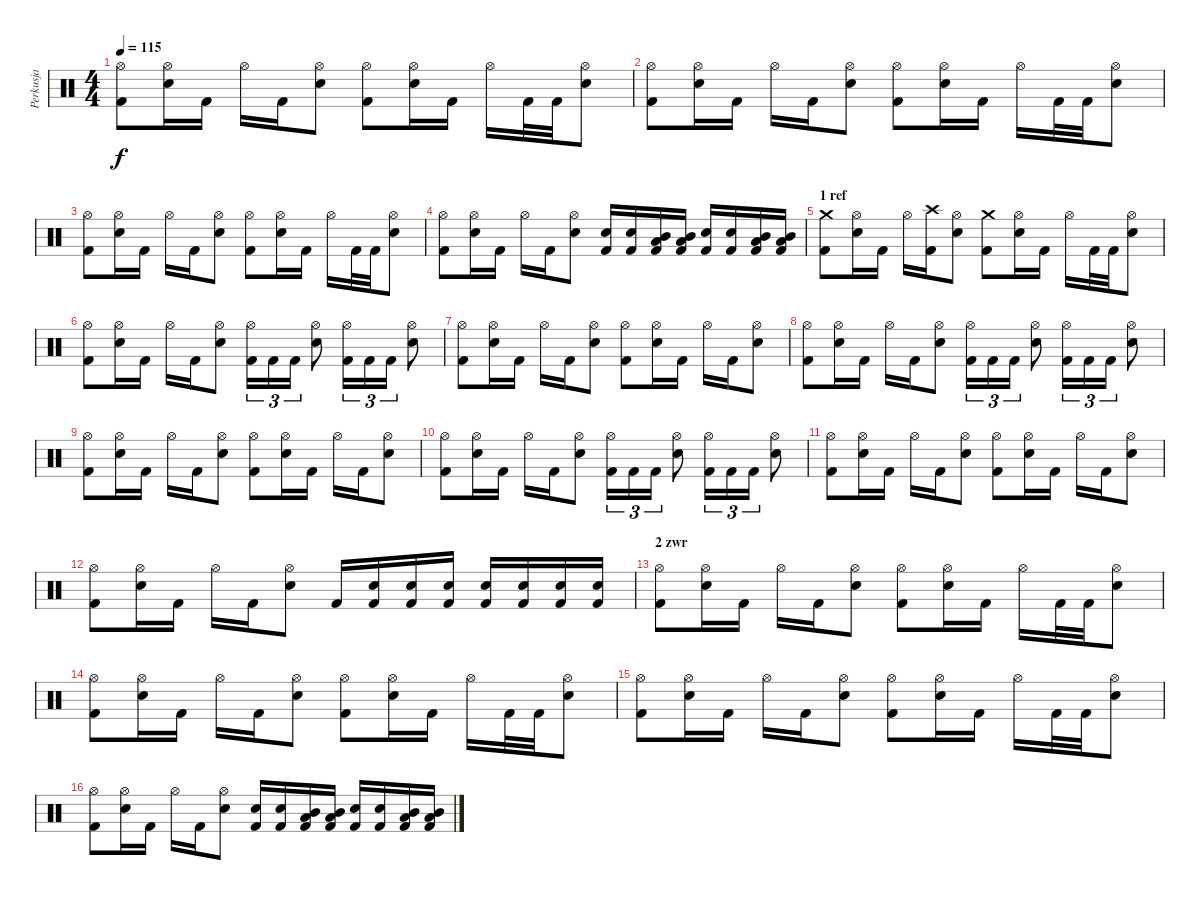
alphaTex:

\track ("Perkusja" "Perkusja") {instrument percussion}
\staff {score}
\articulation defaults
\ts (4 4)
\tempo 115
\clef neutral
\ks c
("Hi-Hat (open)" "Kick (hit) 2").8{dy f} ("Hi-Hat (open)" "Snare (hit) 2").16 "Kick (hit) 2".16 "Hi-Hat (open)".16 "Kick (hit) 2".16 ("Hi-Hat (open)" "Snare (hit) 2").8 ("Hi-Hat (open)" "Kick (hit) 2").8 ("Hi-Hat (open)" "Snare (hit) 2").16 "Kick (hit) 2".16 "Hi-Hat (open)".16 "Kick (hit) 2".32 "Kick (hit) 2".32 ("Hi-Hat (open)" "Snare (hit) 2").8 |
("Hi-Hat (open)" "Kick (hit) 2").8 ("Hi-Hat (open)" "Snare (hit) 2").16 "Kick (hit) 2".16 "Hi-Hat (open)".16 "Kick (hit) 2".16 ("Hi-Hat (open)" "Snare (hit) 2").8 ("Hi-Hat (open)" "Kick (hit) 2").8 ("Hi-Hat (open)" "Snare (hit) 2").16 "Kick (hit) 2".16 "Hi-Hat (open)".16 "Kick (hit) 2".32 "Kick (hit) 2".32 ("Hi-Hat (open)" "Snare (hit) 2").8 |
("Hi-Hat (open)" "Kick (hit) 2").8 ("Hi-Hat (open)" "Snare (hit) 2").16 "Kick (hit) 2".16 "Hi-Hat (open)".16 "Kick (hit) 2".16 ("Hi-Hat (open)" "Snare (hit) 2").8 ("Hi-Hat (open)" "Kick (hit) 2").8 ("Hi-Hat (open)" "Snare (hit) 2").16 "Kick (hit) 2".16 "Hi-Hat (open)".16 "Kick (hit) 2".32 "Kick (hit) 2".32 ("Hi-Hat (open)" "Snare (hit) 2").8 |
("Hi-Hat (open)" "Kick (hit) 2").8 ("Hi-Hat (open)" "Snare (hit) 2").16 "Kick (hit) 2".16 "Hi-Hat (open)".16 "Kick (hit) 2".16 ("Hi-Hat (open)" "Snare (hit) 2").8 ("Snare (hit) 2" "Kick (hit) 2").16 ("Snare (hit) 2" "Kick (hit) 2").16 ("Low Tom (hit)" "Mid Tom (hit)" "Kick (hit) 2").16 ("Low Tom (hit)" "Mid Tom (hit)" "Kick (hit) 2").16 ("Snare (hit) 2" "Kick (hit) 2").16 ("Snare (hit) 2" "Kick (hit) 2").16 ("Low Tom (hit)" "Mid Tom (hit)" "Kick (hit) 2").16 ("Low Tom (hit)" "Mid Tom (hit)" "Kick (hit) 2").16 |
\section ("" "1 ref")
("Crash medium (hit)" "Kick (hit) 2").8 ("Hi-Hat (open)" "Snare (hit) 2").16 "Kick (hit) 2".16 "Hi-Hat (open)".16 ("Crash high (hit)" "Kick (hit) 2").16 ("Hi-Hat (open)" "Snare (hit) 2").8 ("Crash medium (hit)" "Kick (hit) 2").8 ("Hi-Hat (open)" "Snare (hit) 2").16 "Kick (hit) 2".16 "Hi-Hat (open)".16 "Kick (hit) 2".32 "Kick (hit) 2".32 ("Hi-Hat (open)" "Snare (hit) 2").8 |
("Hi-Hat (open)" "Kick (hit) 2").8 ("Hi-Hat (open)" "Snare (hit) 2").16 "Kick (hit) 2".16 "Hi-Hat (open)".16 "Kick (hit) 2".16 ("Hi-Hat (open)" "Snare (hit) 2").8 ("Hi-Hat (open)" "Kick (hit) 2").16{tu (3 2)} "Kick (hit) 2".16{tu (3 2)} "Kick (hit) 2".16{tu (3 2)} ("Hi-Hat (open)" "Snare (hit) 2").8 ("Hi-Hat (open)" "Kick (hit) 2").16{tu (3 2)} "Kick (hit) 2".16{tu (3 2)} "Kick (hit) 2".16{tu (3 2)} ("Hi-Hat (open)" "Snare (hit) 2").8 |
("Hi-Hat (open)" "Kick (hit) 2").8 ("Hi-Hat (open)" "Snare (hit) 2").16 "Kick (hit) 2".16 "Hi-Hat (open)".16 "Kick (hit) 2".16 ("Hi-Hat (open)" "Snare (hit) 2").8 ("Hi-Hat (open)" "Kick (hit) 2").8 ("Hi-Hat (open)" "Snare (hit) 2").16 "Kick (hit) 2".16 "Hi-Hat (open)".16 "Kick (hit) 2".16 ("Hi-Hat (open)" "Snare (hit) 2").8 |
("Hi-Hat (open)" "Kick (hit) 2").8 ("Hi-Hat (open)" "Snare (hit) 2").16 "Kick (hit) 2".16 "Hi-Hat (open)".16 "Kick (hit) 2".16 ("Hi-Hat (open)" "Snare (hit) 2").8 ("Hi-Hat (open)" "Kick (hit) 2").16{tu (3 2)} "Kick (hit) 2".16{tu (3 2)} "Kick (hit) 2".16{tu (3 2)} ("Hi-Hat (open)" "Snare (hit) 2").8 ("Hi-Hat (open)" "Kick (hit) 2").16{tu (3 2)} "Kick (hit) 2".16{tu (3 2)} "Kick (hit) 2".16{tu (3 2)} ("Hi-Hat (open)" "Snare (hit) 2").8 |
("Hi-Hat (open)" "Kick (hit) 2").8 ("Hi-Hat (open)" "Snare (hit) 2").16 "Kick (hit) 2".16 "Hi-Hat (open)".16 "Kick (hit) 2".16 ("Hi-Hat (open)" "Snare (hit) 2").8 ("Hi-Hat (open)" "Kick (hit) 2").8 ("Hi-Hat (open)" "Snare (hit) 2").16 "Kick (hit) 2".16 "Hi-Hat (open)".16 "Kick (hit) 2".16 ("Hi-Hat (open)" "Snare (hit) 2").8 |
("Hi-Hat (open)" "Kick (hit) 2").8 ("Hi-Hat (open)" "Snare (hit) 2").16 "Kick (hit) 2".16 "Hi-Hat (open)".16 "Kick (hit) 2".16 ("Hi-Hat (open)" "Snare (hit) 2").8 ("Hi-Hat (open)" "Kick (hit) 2").16{tu (3 2)} "Kick (hit) 2".16{tu (3 2)} "Kick (hit) 2".16{tu (3 2)} ("Hi-Hat (open)" "Snare (hit) 2").8 ("Hi-Hat (open)" "Kick (hit) 2").16{tu (3 2)} "Kick (hit) 2".16{tu (3 2)} "Kick (hit) 2".16{tu (3 2)} ("Hi-Hat (open)" "Snare (hit) 2").8 |
("Hi-Hat (open)" "Kick (hit) 2").8 ("Hi-Hat (open)" "Snare (hit) 2").16 "Kick (hit) 2".16 "Hi-Hat (open)".16 "Kick (hit) 2".16 ("Hi-Hat (open)" "Snare (hit) 2").8 ("Hi-Hat (open)" "Kick (hit) 2").8 ("Hi-Hat (open)" "Snare (hit) 2").16 "Kick (hit) 2".16 "Hi-Hat (open)".16 "Kick (hit) 2".16 ("Hi-Hat (open)" "Snare (hit) 2").8 |
("Hi-Hat (open)" "Kick (hit) 2").8 ("Hi-Hat (open)" "Snare (hit) 2").16 "Kick (hit) 2".16 "Hi-Hat (open)".16 "Kick (hit) 2".16 ("Hi-Hat (open)" "Snare (hit) 2").8 "Kick (hit) 2".16 ("Snare (hit) 2" "Kick (hit) 2").16 ("Snare (hit) 2" "Kick (hit) 2").16 ("Snare (hit) 2" "Kick (hit) 2").16 ("Snare (hit) 2" "Kick (hit) 2").16 ("Snare (hit) 2" "Kick (hit) 2").16 ("Snare (hit) 2" "Kick (hit) 2").16 ("Snare (hit) 2" "Kick (hit) 2").16 |
\section ("" "2 zwr")
("Hi-Hat (open)" "Kick (hit) 2").8 ("Hi-Hat (open)" "Snare (hit) 2").16 "Kick (hit) 2".16 "Hi-Hat (open)".16 "Kick (hit) 2".16 ("Hi-Hat (open)" "Snare (hit) 2").8 ("Hi-Hat (open)" "Kick (hit) 2").8 ("Hi-Hat (open)" "Snare (hit) 2").16 "Kick (hit) 2".16 "Hi-Hat (open)".16 "Kick (hit) 2".32 "Kick (hit) 2".32 ("Hi-Hat (open)" "Snare (hit) 2").8 |
("Hi-Hat (open)" "Kick (hit) 2").8 ("Hi-Hat (open)" "Snare (hit) 2").16 "Kick (hit) 2".16 "Hi-Hat (open)".16 "Kick (hit) 2".16 ("Hi-Hat (open)" "Snare (hit) 2").8 ("Hi-Hat (open)" "Kick (hit) 2").8 ("Hi-Hat (open)" "Snare (hit) 2").16 "Kick (hit) 2".16 "Hi-Hat (open)".16 "Kick (hit) 2".32 "Kick (hit) 2".32 ("Hi-Hat (open)" "Snare (hit) 2").8 |
("Hi-Hat (open)" "Kick (hit) 2").8 ("Hi-Hat (open)" "Snare (hit) 2").16 "Kick (hit) 2".16 "Hi-Hat (open)".16 "Kick (hit) 2".16 ("Hi-Hat (open)" "Snare (hit) 2").8 ("Hi-Hat (open)" "Kick (hit) 2").8 ("Hi-Hat (open)" "Snare (hit) 2").16 "Kick (hit) 2".16 "Hi-Hat (open)".16 "Kick (hit) 2".32 "Kick (hit) 2".32 ("Hi-Hat (open)" "Snare (hit) 2").8 |
("Hi-Hat (open)" "Kick (hit) 2").8 ("Hi-Hat (open)" "Snare (hit) 2").16 "Kick (hit) 2".16 "Hi-Hat (open)".16 "Kick (hit) 2".16 ("Hi-Hat (open)" "Snare (hit) 2").8 ("Snare (hit) 2" "Kick (hit) 2").16 ("Snare (hit) 2" "Kick (hit) 2").16 ("Low Tom (hit)" "Mid Tom (hit)" "Kick (hit) 2").16 ("Low Tom (hit)" "Mid Tom (hit)" "Kick (hit) 2").16 ("Snare (hit) 2" "Kick (hit) 2").16 ("Snare (hit) 2" "Kick (hit) 2").16 ("Low Tom (hit)" "Mid Tom (hit)" "Kick (hit) 2").16 ("Low Tom (hit)" "Mid Tom (hit)" "Kick (hit) 2").16
